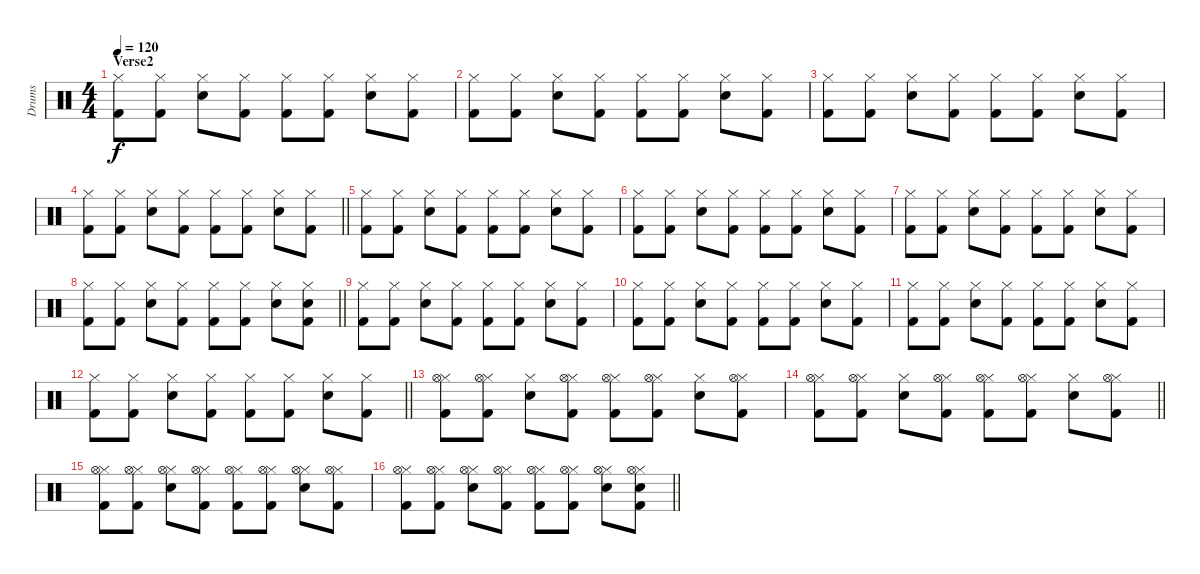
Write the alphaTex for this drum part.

\track ("Drums" "Drums") {instrument percussion}
\staff {score}
\articulation defaults
\ts (4 4)
\section ("" "Verse2")
\tempo 120
\clef neutral
\ks c
("Hi-Hat (closed)" "Kick (hit) 2").8{dy f} ("Hi-Hat (closed)" "Kick (hit) 2").8 ("Hi-Hat (closed)" "Electric Snare (hit)").8 ("Hi-Hat (closed)" "Kick (hit) 2").8 ("Hi-Hat (closed)" "Kick (hit) 2").8 ("Hi-Hat (closed)" "Kick (hit) 2").8 ("Hi-Hat (closed)" "Electric Snare (hit)").8 ("Hi-Hat (closed)" "Kick (hit) 2").8 |
("Hi-Hat (closed)" "Kick (hit) 2").8 ("Hi-Hat (closed)" "Kick (hit) 2").8 ("Hi-Hat (closed)" "Electric Snare (hit)").8 ("Hi-Hat (closed)" "Kick (hit) 2").8 ("Hi-Hat (closed)" "Kick (hit) 2").8 ("Hi-Hat (closed)" "Kick (hit) 2").8 ("Hi-Hat (closed)" "Electric Snare (hit)").8 ("Hi-Hat (closed)" "Kick (hit) 2").8 |
("Hi-Hat (closed)" "Kick (hit) 2").8 ("Hi-Hat (closed)" "Kick (hit) 2").8 ("Hi-Hat (closed)" "Electric Snare (hit)").8 ("Hi-Hat (closed)" "Kick (hit) 2").8 ("Hi-Hat (closed)" "Kick (hit) 2").8 ("Hi-Hat (closed)" "Kick (hit) 2").8 ("Hi-Hat (closed)" "Electric Snare (hit)").8 ("Hi-Hat (closed)" "Kick (hit) 2").8 |
\barLineRight lightlight
("Hi-Hat (closed)" "Kick (hit) 2").8 ("Hi-Hat (closed)" "Kick (hit) 2").8 ("Hi-Hat (closed)" "Electric Snare (hit)").8 ("Hi-Hat (closed)" "Kick (hit) 2").8 ("Hi-Hat (closed)" "Kick (hit) 2").8 ("Hi-Hat (closed)" "Kick (hit) 2").8 ("Hi-Hat (closed)" "Electric Snare (hit)").8 ("Hi-Hat (closed)" "Kick (hit) 2").8 |
("Hi-Hat (closed)" "Kick (hit) 2").8 ("Hi-Hat (closed)" "Kick (hit) 2").8 ("Hi-Hat (closed)" "Electric Snare (hit)").8 ("Hi-Hat (closed)" "Kick (hit) 2").8 ("Hi-Hat (closed)" "Kick (hit) 2").8 ("Hi-Hat (closed)" "Kick (hit) 2").8 ("Hi-Hat (closed)" "Electric Snare (hit)").8 ("Hi-Hat (closed)" "Kick (hit) 2").8 |
("Hi-Hat (closed)" "Kick (hit) 2").8 ("Hi-Hat (closed)" "Kick (hit) 2").8 ("Hi-Hat (closed)" "Electric Snare (hit)").8 ("Hi-Hat (closed)" "Kick (hit) 2").8 ("Hi-Hat (closed)" "Kick (hit) 2").8 ("Hi-Hat (closed)" "Kick (hit) 2").8 ("Hi-Hat (closed)" "Electric Snare (hit)").8 ("Hi-Hat (closed)" "Kick (hit) 2").8 |
("Hi-Hat (closed)" "Kick (hit) 2").8 ("Hi-Hat (closed)" "Kick (hit) 2").8 ("Hi-Hat (closed)" "Electric Snare (hit)").8 ("Hi-Hat (closed)" "Kick (hit) 2").8 ("Hi-Hat (closed)" "Kick (hit) 2").8 ("Hi-Hat (closed)" "Kick (hit) 2").8 ("Hi-Hat (closed)" "Electric Snare (hit)").8 ("Hi-Hat (closed)" "Kick (hit) 2").8 |
\barLineRight lightlight
("Hi-Hat (closed)" "Kick (hit) 2").8 ("Hi-Hat (closed)" "Kick (hit) 2").8 ("Hi-Hat (closed)" "Electric Snare (hit)").8 ("Hi-Hat (closed)" "Kick (hit) 2").8 ("Hi-Hat (closed)" "Kick (hit) 2").8 ("Hi-Hat (closed)" "Kick (hit) 2").8 ("Hi-Hat (closed)" "Electric Snare (hit)").8 ("Hi-Hat (closed)" "Electric Snare (hit)" "Kick (hit) 2").8 |
("Hi-Hat (closed)" "Kick (hit) 2").8 ("Hi-Hat (closed)" "Kick (hit) 2").8 ("Hi-Hat (closed)" "Electric Snare (hit)").8 ("Hi-Hat (closed)" "Kick (hit) 2").8 ("Hi-Hat (closed)" "Kick (hit) 2").8 ("Hi-Hat (closed)" "Kick (hit) 2").8 ("Hi-Hat (closed)" "Electric Snare (hit)").8 ("Hi-Hat (closed)" "Kick (hit) 2").8 |
("Hi-Hat (closed)" "Kick (hit) 2").8 ("Hi-Hat (closed)" "Kick (hit) 2").8 ("Hi-Hat (closed)" "Electric Snare (hit)").8 ("Hi-Hat (closed)" "Kick (hit) 2").8 ("Hi-Hat (closed)" "Kick (hit) 2").8 ("Hi-Hat (closed)" "Kick (hit) 2").8 ("Hi-Hat (closed)" "Electric Snare (hit)").8 ("Hi-Hat (closed)" "Kick (hit) 2").8 |
("Hi-Hat (closed)" "Kick (hit) 2").8 ("Hi-Hat (closed)" "Kick (hit) 2").8 ("Hi-Hat (closed)" "Electric Snare (hit)").8 ("Hi-Hat (closed)" "Kick (hit) 2").8 ("Hi-Hat (closed)" "Kick (hit) 2").8 ("Hi-Hat (closed)" "Kick (hit) 2").8 ("Hi-Hat (closed)" "Electric Snare (hit)").8 ("Hi-Hat (closed)" "Kick (hit) 2").8 |
\barLineRight lightlight
("Hi-Hat (closed)" "Kick (hit) 2").8 ("Hi-Hat (closed)" "Kick (hit) 2").8 ("Hi-Hat (closed)" "Electric Snare (hit)").8 ("Hi-Hat (closed)" "Kick (hit) 2").8 ("Hi-Hat (closed)" "Kick (hit) 2").8 ("Hi-Hat (closed)" "Kick (hit) 2").8 ("Hi-Hat (closed)" "Electric Snare (hit)").8 ("Hi-Hat (closed)" "Kick (hit) 2").8 |
("Hi-Hat (closed)" "Hi-Hat (open)" "Kick (hit) 2").8 ("Hi-Hat (closed)" "Hi-Hat (open)" "Kick (hit) 2").8 ("Hi-Hat (closed)" "Electric Snare (hit)").8 ("Hi-Hat (closed)" "Hi-Hat (open)" "Kick (hit) 2").8 ("Hi-Hat (closed)" "Hi-Hat (open)" "Kick (hit) 2").8 ("Hi-Hat (closed)" "Hi-Hat (open)" "Kick (hit) 2").8 ("Hi-Hat (closed)" "Electric Snare (hit)").8 ("Hi-Hat (closed)" "Hi-Hat (open)" "Kick (hit) 2").8 |
\barLineRight lightlight
("Hi-Hat (closed)" "Hi-Hat (open)" "Kick (hit) 2").8 ("Hi-Hat (closed)" "Hi-Hat (open)" "Kick (hit) 2").8 ("Hi-Hat (closed)" "Electric Snare (hit)").8 ("Hi-Hat (closed)" "Hi-Hat (open)" "Kick (hit) 2").8 ("Hi-Hat (closed)" "Hi-Hat (open)" "Kick (hit) 2").8 ("Hi-Hat (closed)" "Hi-Hat (open)" "Kick (hit) 2").8 ("Hi-Hat (closed)" "Electric Snare (hit)").8 ("Hi-Hat (closed)" "Hi-Hat (open)" "Kick (hit) 2").8 |
("Hi-Hat (closed)" "Hi-Hat (open)" "Kick (hit) 2").8 ("Hi-Hat (closed)" "Hi-Hat (open)" "Kick (hit) 2").8 ("Hi-Hat (closed)" "Hi-Hat (open)" "Electric Snare (hit)").8 ("Hi-Hat (closed)" "Hi-Hat (open)" "Kick (hit) 2").8 ("Hi-Hat (closed)" "Hi-Hat (open)" "Kick (hit) 2").8 ("Hi-Hat (closed)" "Hi-Hat (open)" "Kick (hit) 2").8 ("Hi-Hat (closed)" "Hi-Hat (open)" "Electric Snare (hit)").8 ("Hi-Hat (closed)" "Hi-Hat (open)" "Kick (hit) 2").8 |
\barLineRight lightlight
("Hi-Hat (closed)" "Hi-Hat (open)" "Kick (hit) 2").8 ("Hi-Hat (closed)" "Hi-Hat (open)" "Kick (hit) 2").8 ("Hi-Hat (closed)" "Hi-Hat (open)" "Electric Snare (hit)").8 ("Hi-Hat (closed)" "Hi-Hat (open)" "Kick (hit) 2").8 ("Hi-Hat (closed)" "Hi-Hat (open)" "Kick (hit) 2").8 ("Hi-Hat (closed)" "Hi-Hat (open)" "Kick (hit) 2").8 ("Hi-Hat (closed)" "Hi-Hat (open)" "Electric Snare (hit)").8 ("Hi-Hat (closed)" "Hi-Hat (open)" "Electric Snare (hit)" "Kick (hit) 2").8
